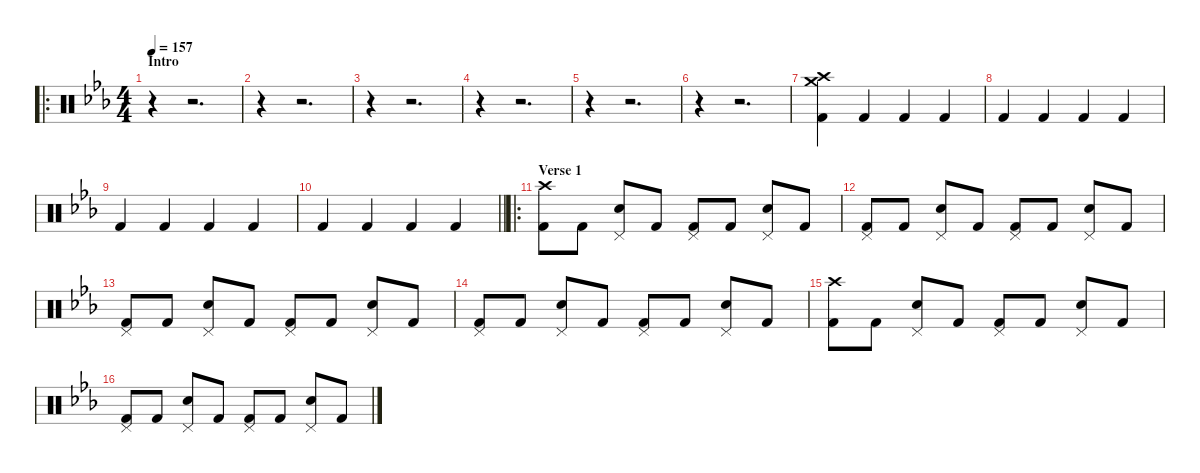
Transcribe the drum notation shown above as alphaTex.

\defaultSystemsLayout 4
\hideDynamics
\bracketExtendMode nobrackets
\singleTrackTrackNamePolicy hidden
\multiTrackTrackNamePolicy hidden
\firstSystemTrackNameMode fullname
\firstSystemTrackNameOrientation horizontal
\otherSystemsTrackNameOrientation horizontal
\track ("Drums" "drm.") {instrument percussion}
\staff {score}
\articulation defaults
\ro
\ts (4 4)
\beaming (8 2 2 2 2)
\section ("" "Intro")
\tempo 157
\clef neutral
\ks cminor
r.4{dy f beam Down} r.2{d beam Down} |
r.4{beam Down} r.2{d beam Down} |
r.4{beam Down} r.2{d beam Down} |
r.4{beam Down} r.2{d beam Down} |
r.4{beam Down} r.2{d beam Down} |
r.4{beam Down} r.2{d beam Down} |
("Crash high (hit)"{acc forcenatural} "Crash medium (hit)"{acc forcenatural} "Kick (hit) 2"{acc forcenatural}).4{beam Down} "Kick (hit) 2"{acc forcenatural}.4{beam Up} "Kick (hit) 2"{acc forcenatural}.4{beam Up} "Kick (hit) 2"{acc forcenatural}.4{beam Up} |
"Kick (hit) 2"{acc forcenatural}.4{beam Up} "Kick (hit) 2"{acc forcenatural}.4{beam Up} "Kick (hit) 2"{acc forcenatural}.4{beam Up} "Kick (hit) 2"{acc forcenatural}.4{beam Up} |
"Kick (hit) 2"{acc forcenatural}.4{beam Up} "Kick (hit) 2"{acc forcenatural}.4{beam Up} "Kick (hit) 2"{acc forcenatural}.4{beam Up} "Kick (hit) 2"{acc forcenatural}.4{beam Up} |
\barLineRight lightlight "Kick (hit) 2"{acc forcenatural}.4{beam Up} "Kick (hit) 2"{acc forcenatural}.4{beam Up} "Kick (hit) 2"{acc forcenatural}.4{beam Up} "Kick (hit) 2"{acc forcenatural}.4{beam Up}
|
\ro
\section ("" "Verse 1")
("Crash high (hit)"{acc forcenatural} "Kick (hit) 2"{acc forcenatural}).8{beam Down} "Kick (hit) 2"{acc forcenatural}.8{beam Down} ("Pedal Hi-Hat (hit)"{acc forcenatural} "Snare (hit) 2"{acc forcenatural}).8{beam Up} "Kick (hit) 2"{acc forcenatural}.8{beam Up} ("Pedal Hi-Hat (hit)"{acc forcenatural} "Kick (hit) 2"{acc forcenatural}).8{beam Up} "Kick (hit) 2"{acc forcenatural}.8{beam Up} ("Pedal Hi-Hat (hit)"{acc forcenatural} "Snare (hit) 2"{acc forcenatural}).8{beam Up} "Kick (hit) 2"{acc forcenatural}.8{beam Up} |
("Pedal Hi-Hat (hit)"{acc forcenatural} "Kick (hit) 2"{acc forcenatural}).8{beam Up} "Kick (hit) 2"{acc forcenatural}.8{beam Up} ("Pedal Hi-Hat (hit)"{acc forcenatural} "Snare (hit) 2"{acc forcenatural}).8{beam Up} "Kick (hit) 2"{acc forcenatural}.8{beam Up} ("Pedal Hi-Hat (hit)"{acc forcenatural} "Kick (hit) 2"{acc forcenatural}).8{beam Up} "Kick (hit) 2"{acc forcenatural}.8{beam Up} ("Pedal Hi-Hat (hit)"{acc forcenatural} "Snare (hit) 2"{acc forcenatural}).8{beam Up} "Kick (hit) 2"{acc forcenatural}.8{beam Up} |
("Pedal Hi-Hat (hit)"{acc forcenatural} "Kick (hit) 2"{acc forcenatural}).8{beam Up} "Kick (hit) 2"{acc forcenatural}.8{beam Up} ("Pedal Hi-Hat (hit)"{acc forcenatural} "Snare (hit) 2"{acc forcenatural}).8{beam Up} "Kick (hit) 2"{acc forcenatural}.8{beam Up} ("Pedal Hi-Hat (hit)"{acc forcenatural} "Kick (hit) 2"{acc forcenatural}).8{beam Up} "Kick (hit) 2"{acc forcenatural}.8{beam Up} ("Pedal Hi-Hat (hit)"{acc forcenatural} "Snare (hit) 2"{acc forcenatural}).8{beam Up} "Kick (hit) 2"{acc forcenatural}.8{beam Up} |
("Pedal Hi-Hat (hit)"{acc forcenatural} "Kick (hit) 2"{acc forcenatural}).8{beam Up} "Kick (hit) 2"{acc forcenatural}.8{beam Up} ("Pedal Hi-Hat (hit)"{acc forcenatural} "Snare (hit) 2"{acc forcenatural}).8{beam Up} "Kick (hit) 2"{acc forcenatural}.8{beam Up} ("Pedal Hi-Hat (hit)"{acc forcenatural} "Kick (hit) 2"{acc forcenatural}).8{beam Up} "Kick (hit) 2"{acc forcenatural}.8{beam Up} ("Pedal Hi-Hat (hit)"{acc forcenatural} "Snare (hit) 2"{acc forcenatural}).8{beam Up} "Kick (hit) 2"{acc forcenatural}.8{beam Up} |
("Crash high (hit)"{acc forcenatural} "Kick (hit) 2"{acc forcenatural}).8{beam Down} "Kick (hit) 2"{acc forcenatural}.8{beam Down} ("Pedal Hi-Hat (hit)"{acc forcenatural} "Snare (hit) 2"{acc forcenatural}).8{beam Up} "Kick (hit) 2"{acc forcenatural}.8{beam Up} ("Pedal Hi-Hat (hit)"{acc forcenatural} "Kick (hit) 2"{acc forcenatural}).8{beam Up} "Kick (hit) 2"{acc forcenatural}.8{beam Up} ("Pedal Hi-Hat (hit)"{acc forcenatural} "Snare (hit) 2"{acc forcenatural}).8{beam Up} "Kick (hit) 2"{acc forcenatural}.8{beam Up} |
("Pedal Hi-Hat (hit)"{acc forcenatural} "Kick (hit) 2"{acc forcenatural}).8{beam Up} "Kick (hit) 2"{acc forcenatural}.8{beam Up} ("Pedal Hi-Hat (hit)"{acc forcenatural} "Snare (hit) 2"{acc forcenatural}).8{beam Up} "Kick (hit) 2"{acc forcenatural}.8{beam Up} ("Pedal Hi-Hat (hit)"{acc forcenatural} "Kick (hit) 2"{acc forcenatural}).8{beam Up} "Kick (hit) 2"{acc forcenatural}.8{beam Up} ("Pedal Hi-Hat (hit)"{acc forcenatural} "Snare (hit) 2"{acc forcenatural}).8{beam Up} "Kick (hit) 2"{acc forcenatural}.8{beam Up}
